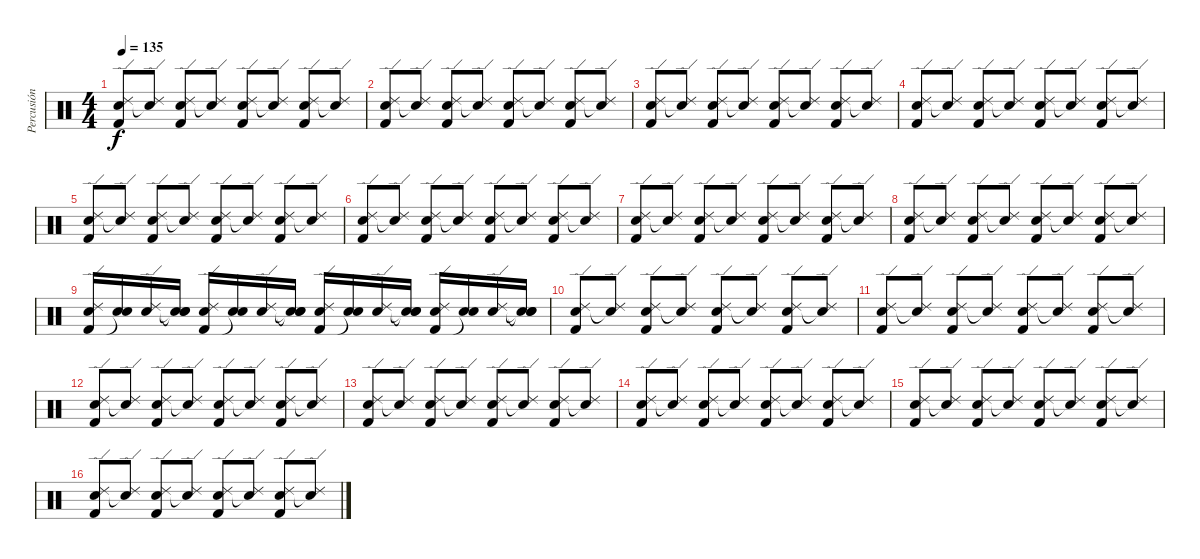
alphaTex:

\track ("Percusión" "Percusión") {instrument percussion}
\staff {score}
\articulation defaults
\ts (4 4)
\tempo 135
\clef neutral
\ks c
("Kick (hit) 2" "Ride (edge) 2" "Electric Snare (hit)").8{dy f} ("Ride (edge) 2" "Snare (hit)"{t}).8 ("Kick (hit) 2" "Ride (edge) 2" "Electric Snare (hit)").8 ("Ride (edge) 2" "Snare (hit)"{t}).8 ("Kick (hit) 2" "Ride (edge) 2" "Electric Snare (hit)").8 ("Ride (edge) 2" "Snare (hit)"{t}).8 ("Kick (hit) 2" "Ride (edge) 2" "Electric Snare (hit)").8 ("Ride (edge) 2" "Snare (hit)"{t}).8 |
("Kick (hit) 2" "Ride (edge) 2" "Electric Snare (hit)").8 ("Ride (edge) 2" "Snare (hit)"{t}).8 ("Kick (hit) 2" "Ride (edge) 2" "Electric Snare (hit)").8 ("Ride (edge) 2" "Snare (hit)"{t}).8 ("Kick (hit) 2" "Ride (edge) 2" "Electric Snare (hit)").8 ("Ride (edge) 2" "Snare (hit)"{t}).8 ("Kick (hit) 2" "Ride (edge) 2" "Electric Snare (hit)").8 ("Ride (edge) 2" "Snare (hit)"{t}).8 |
("Kick (hit) 2" "Ride (edge) 2" "Electric Snare (hit)").8 ("Ride (edge) 2" "Snare (hit)"{t}).8 ("Kick (hit) 2" "Ride (edge) 2" "Electric Snare (hit)").8 ("Ride (edge) 2" "Snare (hit)"{t}).8 ("Kick (hit) 2" "Ride (edge) 2" "Electric Snare (hit)").8 ("Ride (edge) 2" "Snare (hit)"{t}).8 ("Kick (hit) 2" "Ride (edge) 2" "Electric Snare (hit)").8 ("Ride (edge) 2" "Snare (hit)"{t}).8 |
("Kick (hit) 2" "Ride (edge) 2" "Electric Snare (hit)").8 ("Ride (edge) 2" "Snare (hit)"{t}).8 ("Kick (hit) 2" "Ride (edge) 2" "Electric Snare (hit)").8 ("Ride (edge) 2" "Snare (hit)"{t}).8 ("Kick (hit) 2" "Ride (edge) 2" "Electric Snare (hit)").8 ("Ride (edge) 2" "Snare (hit)"{t}).8 ("Kick (hit) 2" "Ride (edge) 2" "Electric Snare (hit)").8 ("Ride (edge) 2" "Snare (hit)"{t}).8 |
("Kick (hit) 2" "Ride (edge) 2" "Electric Snare (hit)").8 ("Ride (edge) 2" "Snare (hit)"{t}).8 ("Kick (hit) 2" "Ride (edge) 2" "Electric Snare (hit)").8 ("Ride (edge) 2" "Snare (hit)"{t}).8 ("Kick (hit) 2" "Ride (edge) 2" "Electric Snare (hit)").8 ("Ride (edge) 2" "Snare (hit)"{t}).8 ("Kick (hit) 2" "Ride (edge) 2" "Electric Snare (hit)").8 ("Ride (edge) 2" "Snare (hit)"{t}).8 |
("Kick (hit) 2" "Ride (edge) 2" "Electric Snare (hit)").8 ("Ride (edge) 2" "Snare (hit)"{t}).8 ("Kick (hit) 2" "Ride (edge) 2" "Electric Snare (hit)").8 ("Ride (edge) 2" "Snare (hit)"{t}).8 ("Kick (hit) 2" "Ride (edge) 2" "Electric Snare (hit)").8 ("Ride (edge) 2" "Snare (hit)"{t}).8 ("Kick (hit) 2" "Ride (edge) 2" "Electric Snare (hit)").8 ("Ride (edge) 2" "Snare (hit)"{t}).8 |
("Kick (hit) 2" "Ride (edge) 2" "Electric Snare (hit)").8 ("Ride (edge) 2" "Snare (hit)"{t}).8 ("Kick (hit) 2" "Ride (edge) 2" "Electric Snare (hit)").8 ("Ride (edge) 2" "Snare (hit)"{t}).8 ("Kick (hit) 2" "Ride (edge) 2" "Electric Snare (hit)").8 ("Ride (edge) 2" "Snare (hit)"{t}).8 ("Kick (hit) 2" "Ride (edge) 2" "Electric Snare (hit)").8 ("Ride (edge) 2" "Snare (hit)"{t}).8 |
("Kick (hit) 2" "Ride (edge) 2" "Electric Snare (hit)").8 ("Ride (edge) 2" "Snare (hit)"{t}).8 ("Kick (hit) 2" "Ride (edge) 2" "Electric Snare (hit)").8 ("Ride (edge) 2" "Snare (hit)"{t}).8 ("Kick (hit) 2" "Ride (edge) 2" "Electric Snare (hit)").8 ("Ride (edge) 2" "Snare (hit)"{t}).8 ("Kick (hit) 2" "Ride (edge) 2" "Electric Snare (hit)").8 ("Ride (edge) 2" "Snare (hit)"{t}).8 |
("Kick (hit) 2" "Ride (edge) 2" "Electric Snare (hit)").16 ("Snare (hit)"{t} "Electric Snare (hit)").16 ("Ride (edge) 2" "Electric Snare (hit)").16 ("Snare (hit)"{t} "Snare (hit)"{t} "Electric Snare (hit)").16 ("Kick (hit) 2" "Ride (edge) 2" "Electric Snare (hit)").16 ("Snare (hit)"{t} "Electric Snare (hit)").16 ("Ride (edge) 2" "Electric Snare (hit)").16 ("Snare (hit)"{t} "Snare (hit)"{t} "Electric Snare (hit)").16 ("Kick (hit) 2" "Ride (edge) 2" "Electric Snare (hit)").16 ("Snare (hit)"{t} "Electric Snare (hit)").16 ("Ride (edge) 2" "Electric Snare (hit)").16 ("Snare (hit)"{t} "Snare (hit)"{t} "Electric Snare (hit)").16 ("Kick (hit) 2" "Ride (edge) 2" "Electric Snare (hit)").16 ("Snare (hit)"{t} "Electric Snare (hit)").16 ("Ride (edge) 2" "Electric Snare (hit)").16 ("Snare (hit)"{t} "Snare (hit)"{t} "Electric Snare (hit)").16 |
("Kick (hit) 2" "Ride (edge) 2" "Electric Snare (hit)").8 ("Ride (edge) 2" "Snare (hit)"{t}).8 ("Kick (hit) 2" "Ride (edge) 2" "Electric Snare (hit)").8 ("Ride (edge) 2" "Snare (hit)"{t}).8 ("Kick (hit) 2" "Ride (edge) 2" "Electric Snare (hit)").8 ("Ride (edge) 2" "Snare (hit)"{t}).8 ("Kick (hit) 2" "Ride (edge) 2" "Electric Snare (hit)").8 ("Ride (edge) 2" "Snare (hit)"{t}).8 |
("Kick (hit) 2" "Ride (edge) 2" "Electric Snare (hit)").8 ("Ride (edge) 2" "Snare (hit)"{t}).8 ("Kick (hit) 2" "Ride (edge) 2" "Electric Snare (hit)").8 ("Ride (edge) 2" "Snare (hit)"{t}).8 ("Kick (hit) 2" "Ride (edge) 2" "Electric Snare (hit)").8 ("Ride (edge) 2" "Snare (hit)"{t}).8 ("Kick (hit) 2" "Ride (edge) 2" "Electric Snare (hit)").8 ("Ride (edge) 2" "Snare (hit)"{t}).8 |
("Kick (hit) 2" "Ride (edge) 2" "Electric Snare (hit)").8 ("Ride (edge) 2" "Snare (hit)"{t}).8 ("Kick (hit) 2" "Ride (edge) 2" "Electric Snare (hit)").8 ("Ride (edge) 2" "Snare (hit)"{t}).8 ("Kick (hit) 2" "Ride (edge) 2" "Electric Snare (hit)").8 ("Ride (edge) 2" "Snare (hit)"{t}).8 ("Kick (hit) 2" "Ride (edge) 2" "Electric Snare (hit)").8 ("Ride (edge) 2" "Snare (hit)"{t}).8 |
("Kick (hit) 2" "Ride (edge) 2" "Electric Snare (hit)").8 ("Ride (edge) 2" "Snare (hit)"{t}).8 ("Kick (hit) 2" "Ride (edge) 2" "Electric Snare (hit)").8 ("Ride (edge) 2" "Snare (hit)"{t}).8 ("Kick (hit) 2" "Ride (edge) 2" "Electric Snare (hit)").8 ("Ride (edge) 2" "Snare (hit)"{t}).8 ("Kick (hit) 2" "Ride (edge) 2" "Electric Snare (hit)").8 ("Ride (edge) 2" "Snare (hit)"{t}).8 |
("Kick (hit) 2" "Ride (edge) 2" "Electric Snare (hit)").8 ("Ride (edge) 2" "Snare (hit)"{t}).8 ("Kick (hit) 2" "Ride (edge) 2" "Electric Snare (hit)").8 ("Ride (edge) 2" "Snare (hit)"{t}).8 ("Kick (hit) 2" "Ride (edge) 2" "Electric Snare (hit)").8 ("Ride (edge) 2" "Snare (hit)"{t}).8 ("Kick (hit) 2" "Ride (edge) 2" "Electric Snare (hit)").8 ("Ride (edge) 2" "Snare (hit)"{t}).8 |
("Kick (hit) 2" "Ride (edge) 2" "Electric Snare (hit)").8 ("Ride (edge) 2" "Snare (hit)"{t}).8 ("Kick (hit) 2" "Ride (edge) 2" "Electric Snare (hit)").8 ("Ride (edge) 2" "Snare (hit)"{t}).8 ("Kick (hit) 2" "Ride (edge) 2" "Electric Snare (hit)").8 ("Ride (edge) 2" "Snare (hit)"{t}).8 ("Kick (hit) 2" "Ride (edge) 2" "Electric Snare (hit)").8 ("Ride (edge) 2" "Snare (hit)"{t}).8 |
("Kick (hit) 2" "Ride (edge) 2" "Electric Snare (hit)").8 ("Ride (edge) 2" "Snare (hit)"{t}).8 ("Kick (hit) 2" "Ride (edge) 2" "Electric Snare (hit)").8 ("Ride (edge) 2" "Snare (hit)"{t}).8 ("Kick (hit) 2" "Ride (edge) 2" "Electric Snare (hit)").8 ("Ride (edge) 2" "Snare (hit)"{t}).8 ("Kick (hit) 2" "Ride (edge) 2" "Electric Snare (hit)").8 ("Ride (edge) 2" "Snare (hit)"{t}).8
